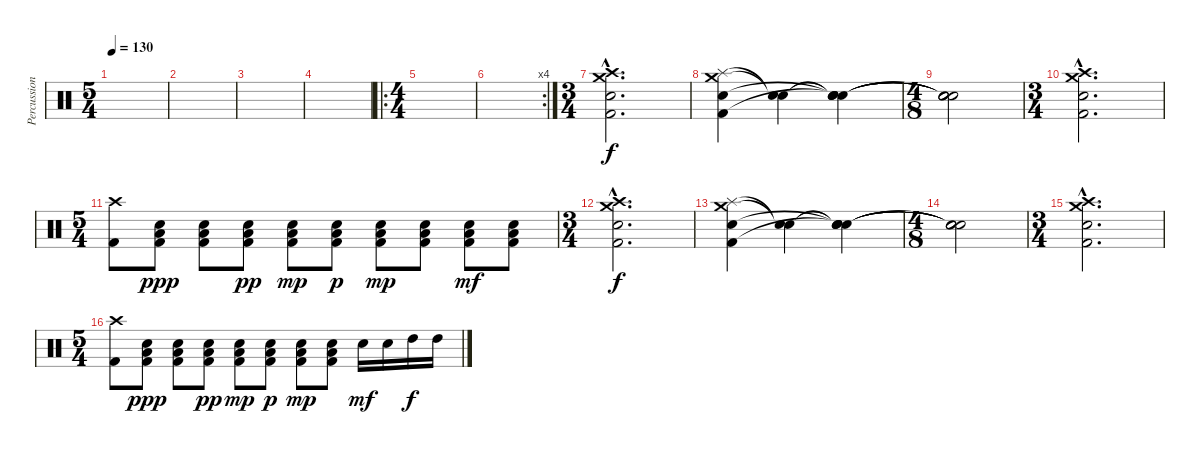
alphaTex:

\track ("Percussion" "Percussion") {instrument percussion}
\staff {score}
\articulation defaults
\ts (5 4)
\tempo 130
\clef neutral
\ks c
|
|
|
|
\ro
\ts (4 4)
|
\rc 4
|
\ts (3 4)
("Crash high (hit)"{hac} "Crash medium (hit)"{hac} "Snare (hit) 2"{hac} "Kick (hit) 2"{hac}).2{d} |
("Splash (hit)" "Crash medium (hit)" "Snare (hit) 2" "Kick (hit) 2").4 ("Snare (hit)"{t} "Snare (hit)"{t}).4 ("Snare (hit)"{t} "Snare (hit)"{t} "Snare (hit)"{t} "Snare (hit)"{t}).4 |
\ts (4 8)
("Snare (hit)"{t} "Snare (hit)"{t} "Snare (hit)"{t} "Snare (hit)"{t}).2 |
\ts (3 4)
("Crash high (hit)"{hac} "Crash medium (hit)"{hac} "Snare (hit) 2"{hac} "Kick (hit) 2"{hac}).2{d} |
\ts (5 4)
("Crash high (hit)" "Kick (hit) 2").8 ("Low Floor Tom (hit)" "Snare (hit) 2" "Kick (hit) 2").8{dy ppp} ("Low Floor Tom (hit)" "Snare (hit) 2" "Kick (hit) 2").8 ("Low Floor Tom (hit)" "Snare (hit) 2" "Kick (hit) 2").8{dy pp} ("Low Floor Tom (hit)" "Snare (hit) 2" "Kick (hit) 2").8{dy mp} ("Low Floor Tom (hit)" "Snare (hit) 2" "Kick (hit) 2").8{dy p} ("Low Floor Tom (hit)" "Snare (hit) 2" "Kick (hit) 2").8{dy mp} ("Low Floor Tom (hit)" "Snare (hit) 2" "Kick (hit) 2").8 ("Low Floor Tom (hit)" "Snare (hit) 2" "Kick (hit) 2").8{dy mf} ("Low Floor Tom (hit)" "Snare (hit) 2" "Kick (hit) 2").8 |
\ts (3 4)
("Crash high (hit)"{hac} "Crash medium (hit)"{hac} "Snare (hit) 2"{hac} "Kick (hit) 2"{hac}).2{d dy f} |
("Splash (hit)" "Crash medium (hit)" "Snare (hit) 2" "Kick (hit) 2").4 ("Snare (hit)"{t} "Snare (hit)"{t}).4 ("Snare (hit)"{t} "Snare (hit)"{t} "Snare (hit)"{t} "Snare (hit)"{t}).4 |
\ts (4 8)
("Snare (hit)"{t} "Snare (hit)"{t} "Snare (hit)"{t} "Snare (hit)"{t}).2 |
\ts (3 4)
("Crash high (hit)"{hac} "Crash medium (hit)"{hac} "Snare (hit) 2"{hac} "Kick (hit) 2"{hac}).2{d} |
\ts (5 4)
("Crash high (hit)" "Kick (hit) 2").8 ("Low Floor Tom (hit)" "Snare (hit) 2" "Kick (hit) 2").8{dy ppp} ("Low Floor Tom (hit)" "Snare (hit) 2" "Kick (hit) 2").8 ("Low Floor Tom (hit)" "Snare (hit) 2" "Kick (hit) 2").8{dy pp} ("Low Floor Tom (hit)" "Snare (hit) 2" "Kick (hit) 2").8{dy mp} ("Low Floor Tom (hit)" "Snare (hit) 2" "Kick (hit) 2").8{dy p} ("Low Floor Tom (hit)" "Snare (hit) 2" "Kick (hit) 2").8{dy mp} ("Low Floor Tom (hit)" "Snare (hit) 2" "Kick (hit) 2").8 "Snare (hit) 2".16{dy mf} "Snare (hit) 2".16 "High Tom (hit)".16{dy f} "High Tom (hit)".16
